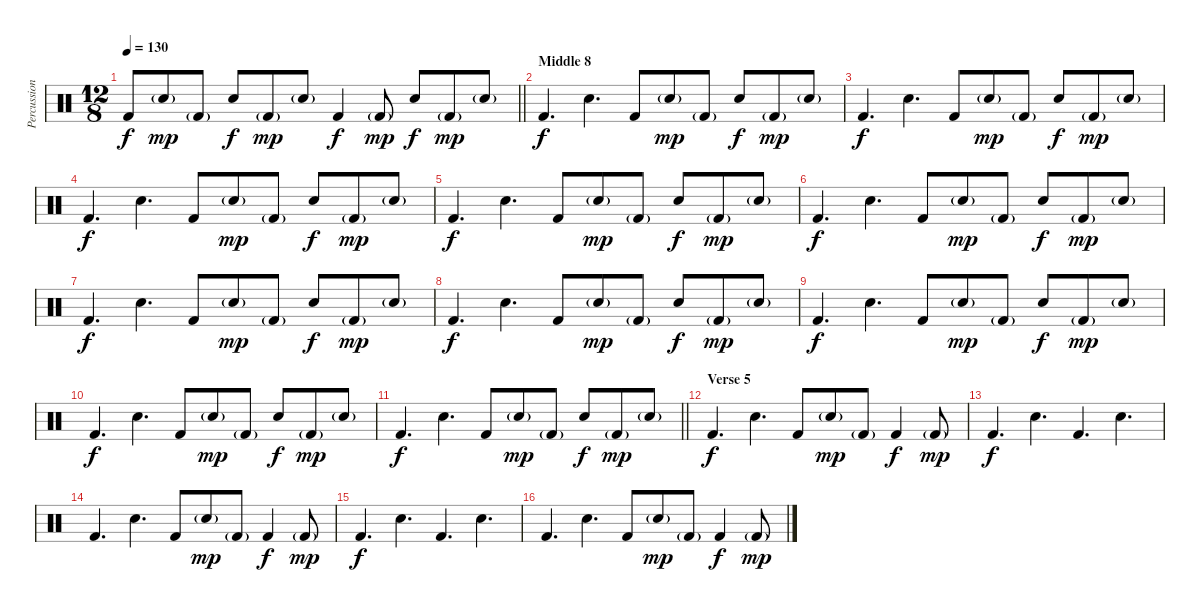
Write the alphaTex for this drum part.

\track ("Percussion" "Percussion") {instrument percussion}
\staff {score}
\articulation defaults
\ts (12 8)
\tempo 130
\clef neutral
\barLineRight lightlight
\ks c "Kick (hit) 2".8{dy f} "Snare (hit) 2"{g}.8{dy mp} "Kick (hit) 2"{g}.8 "Snare (hit) 2".8{dy f} "Kick (hit) 2"{g}.8{dy mp} "Snare (hit) 2"{g}.8 "Kick (hit) 2".4{dy f} "Kick (hit) 2"{g}.8{dy mp} "Snare (hit) 2".8{dy f} "Kick (hit) 2"{g}.8{dy mp} "Snare (hit) 2"{g}.8
|
\section ("" "Middle 8")
"Kick (hit) 2".4{d dy f} "Snare (hit) 2".4{d} "Kick (hit) 2".8 "Snare (hit) 2"{g}.8{dy mp} "Kick (hit) 2"{g}.8 "Snare (hit) 2".8{dy f} "Kick (hit) 2"{g}.8{dy mp} "Snare (hit) 2"{g}.8 |
"Kick (hit) 2".4{d dy f} "Snare (hit) 2".4{d} "Kick (hit) 2".8 "Snare (hit) 2"{g}.8{dy mp} "Kick (hit) 2"{g}.8 "Snare (hit) 2".8{dy f} "Kick (hit) 2"{g}.8{dy mp} "Snare (hit) 2"{g}.8 |
"Kick (hit) 2".4{d dy f} "Snare (hit) 2".4{d} "Kick (hit) 2".8 "Snare (hit) 2"{g}.8{dy mp} "Kick (hit) 2"{g}.8 "Snare (hit) 2".8{dy f} "Kick (hit) 2"{g}.8{dy mp} "Snare (hit) 2"{g}.8 |
"Kick (hit) 2".4{d dy f} "Snare (hit) 2".4{d} "Kick (hit) 2".8 "Snare (hit) 2"{g}.8{dy mp} "Kick (hit) 2"{g}.8 "Snare (hit) 2".8{dy f} "Kick (hit) 2"{g}.8{dy mp} "Snare (hit) 2"{g}.8 |
"Kick (hit) 2".4{d dy f} "Snare (hit) 2".4{d} "Kick (hit) 2".8 "Snare (hit) 2"{g}.8{dy mp} "Kick (hit) 2"{g}.8 "Snare (hit) 2".8{dy f} "Kick (hit) 2"{g}.8{dy mp} "Snare (hit) 2"{g}.8 |
"Kick (hit) 2".4{d dy f} "Snare (hit) 2".4{d} "Kick (hit) 2".8 "Snare (hit) 2"{g}.8{dy mp} "Kick (hit) 2"{g}.8 "Snare (hit) 2".8{dy f} "Kick (hit) 2"{g}.8{dy mp} "Snare (hit) 2"{g}.8 |
"Kick (hit) 2".4{d dy f} "Snare (hit) 2".4{d} "Kick (hit) 2".8 "Snare (hit) 2"{g}.8{dy mp} "Kick (hit) 2"{g}.8 "Snare (hit) 2".8{dy f} "Kick (hit) 2"{g}.8{dy mp} "Snare (hit) 2"{g}.8 |
"Kick (hit) 2".4{d dy f} "Snare (hit) 2".4{d} "Kick (hit) 2".8 "Snare (hit) 2"{g}.8{dy mp} "Kick (hit) 2"{g}.8 "Snare (hit) 2".8{dy f} "Kick (hit) 2"{g}.8{dy mp} "Snare (hit) 2"{g}.8 |
"Kick (hit) 2".4{d dy f} "Snare (hit) 2".4{d} "Kick (hit) 2".8 "Snare (hit) 2"{g}.8{dy mp} "Kick (hit) 2"{g}.8 "Snare (hit) 2".8{dy f} "Kick (hit) 2"{g}.8{dy mp} "Snare (hit) 2"{g}.8 |
\barLineRight lightlight "Kick (hit) 2".4{d dy f} "Snare (hit) 2".4{d} "Kick (hit) 2".8 "Snare (hit) 2"{g}.8{dy mp} "Kick (hit) 2"{g}.8 "Snare (hit) 2".8{dy f} "Kick (hit) 2"{g}.8{dy mp} "Snare (hit) 2"{g}.8
|
\section ("" "Verse 5")
"Kick (hit) 2".4{d dy f} "Snare (hit) 2".4{d} "Kick (hit) 2".8 "Snare (hit) 2"{g}.8{dy mp} "Kick (hit) 2"{g}.8 "Kick (hit) 2".4{dy f} "Kick (hit) 2"{g}.8{dy mp} |
"Kick (hit) 2".4{d dy f} "Snare (hit) 2".4{d} "Kick (hit) 2".4{d} "Snare (hit) 2".4{d} |
"Kick (hit) 2".4{d} "Snare (hit) 2".4{d} "Kick (hit) 2".8 "Snare (hit) 2"{g}.8{dy mp} "Kick (hit) 2"{g}.8 "Kick (hit) 2".4{dy f} "Kick (hit) 2"{g}.8{dy mp} |
"Kick (hit) 2".4{d dy f} "Snare (hit) 2".4{d} "Kick (hit) 2".4{d} "Snare (hit) 2".4{d} |
"Kick (hit) 2".4{d} "Snare (hit) 2".4{d} "Kick (hit) 2".8 "Snare (hit) 2"{g}.8{dy mp} "Kick (hit) 2"{g}.8 "Kick (hit) 2".4{dy f} "Kick (hit) 2"{g}.8{dy mp}
